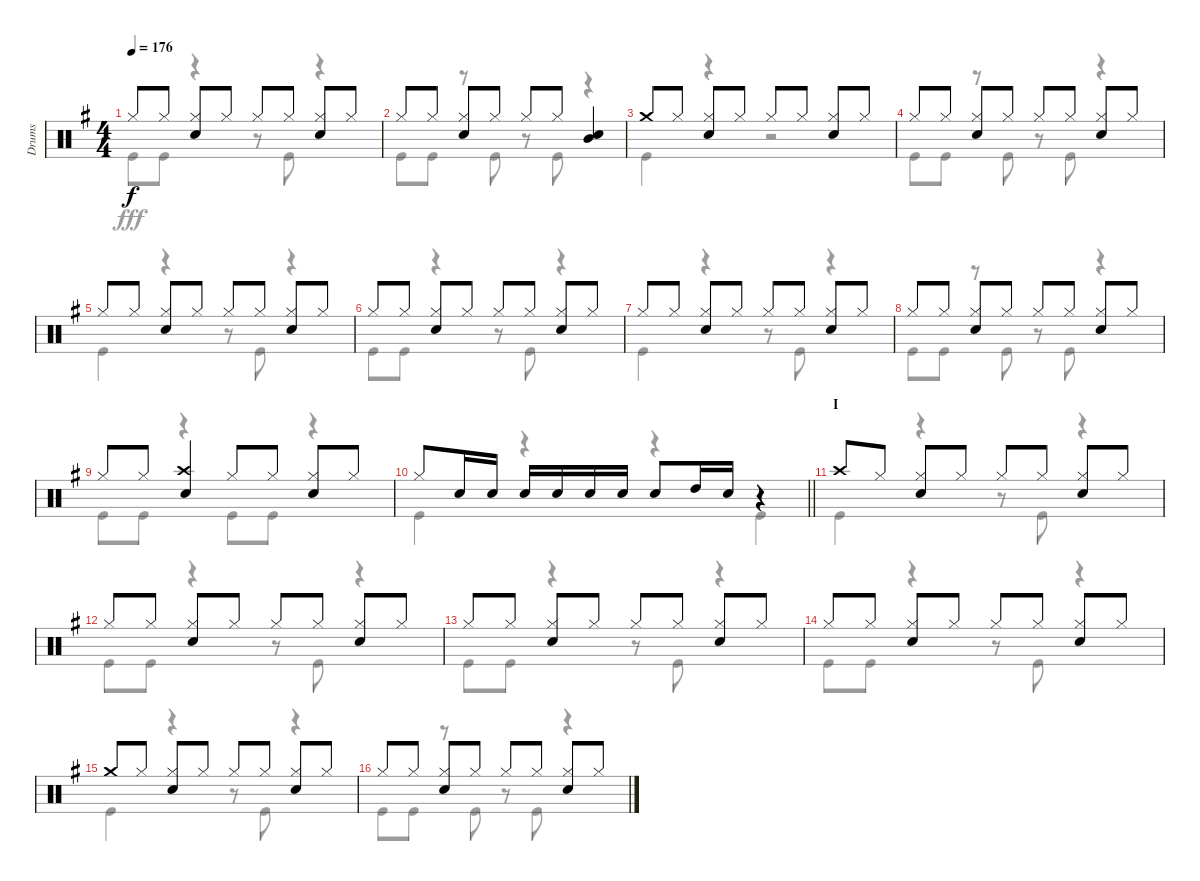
\track ("Drums" "Drums") {instrument percussion}
\staff {score}
\articulation defaults
\voice
\ts (4 4)
\tempo 176
\clef neutral
\ks g "Hi-Hat (closed)".8{dy f} "Hi-Hat (closed)".8
("Hi-Hat (closed)" "Snare (hit) 2").8 "Hi-Hat (closed)".8 "Hi-Hat (closed)".8 "Hi-Hat (closed)".8 ("Hi-Hat (closed)" "Snare (hit) 2").8 "Hi-Hat (closed)".8 |
"Hi-Hat (closed)".8 "Hi-Hat (closed)".8 ("Hi-Hat (closed)" "Snare (hit) 2").8 "Hi-Hat (closed)".8 "Hi-Hat (closed)".8 "Hi-Hat (closed)".8 ("Mid Tom (hit)" "Snare (hit) 2").4 |
"Crash medium (hit)".8 "Hi-Hat (closed)".8 ("Hi-Hat (closed)" "Snare (hit) 2").8 "Hi-Hat (closed)".8 "Hi-Hat (closed)".8 "Hi-Hat (closed)".8 ("Hi-Hat (closed)" "Snare (hit) 2").8 "Hi-Hat (closed)".8 |
"Hi-Hat (closed)".8 "Hi-Hat (closed)".8 ("Hi-Hat (closed)" "Snare (hit) 2").8 "Hi-Hat (closed)".8 "Hi-Hat (closed)".8 "Hi-Hat (closed)".8 ("Hi-Hat (closed)" "Snare (hit) 2").8 "Hi-Hat (closed)".8 |
"Hi-Hat (closed)".8 "Hi-Hat (closed)".8 ("Hi-Hat (closed)" "Snare (hit) 2").8 "Hi-Hat (closed)".8 "Hi-Hat (closed)".8 "Hi-Hat (closed)".8 ("Hi-Hat (closed)" "Snare (hit) 2").8 "Hi-Hat (closed)".8 |
"Hi-Hat (closed)".8 "Hi-Hat (closed)".8 ("Hi-Hat (closed)" "Snare (hit) 2").8 "Hi-Hat (closed)".8 "Hi-Hat (closed)".8 "Hi-Hat (closed)".8 ("Hi-Hat (closed)" "Snare (hit) 2").8 "Hi-Hat (closed)".8 |
"Hi-Hat (closed)".8 "Hi-Hat (closed)".8 ("Hi-Hat (closed)" "Snare (hit) 2").8 "Hi-Hat (closed)".8 "Hi-Hat (closed)".8 "Hi-Hat (closed)".8 ("Hi-Hat (closed)" "Snare (hit) 2").8 "Hi-Hat (closed)".8 |
"Hi-Hat (closed)".8 "Hi-Hat (closed)".8 ("Hi-Hat (closed)" "Snare (hit) 2").8 "Hi-Hat (closed)".8 "Hi-Hat (closed)".8 "Hi-Hat (closed)".8 ("Hi-Hat (closed)" "Snare (hit) 2").8 "Hi-Hat (closed)".8 |
"Hi-Hat (closed)".8 "Hi-Hat (closed)".8 ("Crash high (hit)" "Snare (hit) 2").4 "Hi-Hat (closed)".8 "Hi-Hat (closed)".8 ("Hi-Hat (closed)" "Snare (hit) 2").8 "Hi-Hat (closed)".8 |
\barLineRight lightlight "Hi-Hat (closed)".8 "Snare (hit) 2".16 "Snare (hit) 2".16 "Snare (hit) 2".16 "Snare (hit) 2".16 "Snare (hit) 2".16 "Snare (hit) 2".16 "Snare (hit) 2".8 "High Tom (hit)".16 "Snare (hit) 2".16
r.4 |
\section ("" "I")
"Crash high (hit)".8 "Hi-Hat (closed)".8 ("Hi-Hat (closed)" "Snare (hit) 2").8 "Hi-Hat (closed)".8 "Hi-Hat (closed)".8 "Hi-Hat (closed)".8 ("Hi-Hat (closed)" "Snare (hit) 2").8 "Hi-Hat (closed)".8 |
"Hi-Hat (closed)".8 "Hi-Hat (closed)".8 ("Hi-Hat (closed)" "Snare (hit) 2").8 "Hi-Hat (closed)".8 "Hi-Hat (closed)".8 "Hi-Hat (closed)".8 ("Hi-Hat (closed)" "Snare (hit) 2").8 "Hi-Hat (closed)".8 |
"Hi-Hat (closed)".8 "Hi-Hat (closed)".8 ("Hi-Hat (closed)" "Snare (hit) 2").8 "Hi-Hat (closed)".8 "Hi-Hat (closed)".8 "Hi-Hat (closed)".8 ("Hi-Hat (closed)" "Snare (hit) 2").8 "Hi-Hat (closed)".8 |
"Hi-Hat (closed)".8 "Hi-Hat (closed)".8 ("Hi-Hat (closed)" "Snare (hit) 2").8 "Hi-Hat (closed)".8 "Hi-Hat (closed)".8 "Hi-Hat (closed)".8 ("Hi-Hat (closed)" "Snare (hit) 2").8 "Hi-Hat (closed)".8 |
"Crash medium (hit)".8 "Hi-Hat (closed)".8 ("Hi-Hat (closed)" "Snare (hit) 2").8 "Hi-Hat (closed)".8 "Hi-Hat (closed)".8 "Hi-Hat (closed)".8 ("Hi-Hat (closed)" "Snare (hit) 2").8 "Hi-Hat (closed)".8 |
"Hi-Hat (closed)".8 "Hi-Hat (closed)".8 ("Hi-Hat (closed)" "Snare (hit) 2").8 "Hi-Hat (closed)".8 "Hi-Hat (closed)".8 "Hi-Hat (closed)".8 ("Hi-Hat (closed)" "Snare (hit) 2").8 "Hi-Hat (closed)".8
\voice
\clef neutral
\ottava regular
\simile none
\ks g "Kick (hit)".8{dy fff} "Kick (hit)".8
r.4 r.8 "Kick (hit)".8 r.4 |
"Kick (hit)".8 "Kick (hit)".8 r.8 "Kick (hit)".8 r.8 "Kick (hit)".8 r.4 |
"Kick (hit)".4 r.4 r.2 |
"Kick (hit)".8 "Kick (hit)".8 r.8 "Kick (hit)".8 r.8 "Kick (hit)".8 r.4 |
"Kick (hit)".4 r.4 r.8 "Kick (hit)".8 r.4 |
"Kick (hit)".8 "Kick (hit)".8 r.4 r.8 "Kick (hit)".8 r.4 |
"Kick (hit)".4 r.4 r.8 "Kick (hit)".8 r.4 |
"Kick (hit)".8 "Kick (hit)".8 r.8 "Kick (hit)".8 r.8 "Kick (hit)".8 r.4 |
"Kick (hit)".8 "Kick (hit)".8 r.4 "Kick (hit)".8 "Kick (hit)".8 r.4 |
\barLineRight lightlight "Kick (hit)".4
r.4 r.4 "Kick (hit)".4 |
"Kick (hit)".4 r.4 r.8 "Kick (hit)".8 r.4 |
"Kick (hit)".8 "Kick (hit)".8 r.4 r.8 "Kick (hit)".8 r.4 |
"Kick (hit)".8 "Kick (hit)".8 r.4 r.8 "Kick (hit)".8 r.4 |
"Kick (hit)".8 "Kick (hit)".8 r.4 r.8 "Kick (hit)".8 r.4 |
"Kick (hit)".4 r.4 r.8 "Kick (hit)".8 r.4 |
"Kick (hit)".8 "Kick (hit)".8 r.8 "Kick (hit)".8 r.8 "Kick (hit)".8 r.4
